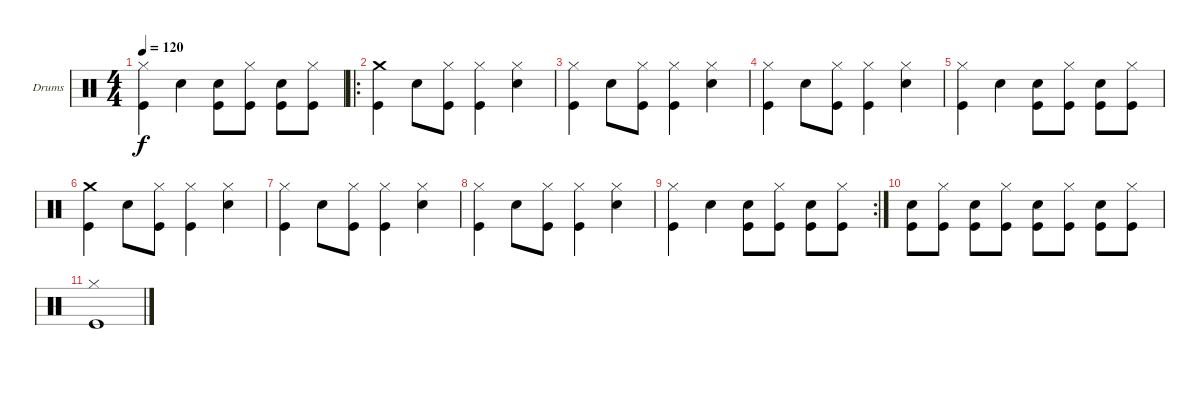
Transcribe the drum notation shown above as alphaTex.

\defaultSystemsLayout 4
\bracketExtendMode groupsimilarinstruments
\firstSystemTrackNameOrientation horizontal
\otherSystemsTrackNameOrientation horizontal
\track ("Aleksei Lyubavin" "Drums") {instrument percussion}
\staff {score}
\articulation defaults
\ts (4 4)
\tempo 120
\clef neutral
\ks c
("Hi-Hat (closed)" "Kick (hit)").4{dy f} "Snare (hit) 2".4 ("Kick (hit)" "Snare (hit) 2").8 ("Hi-Hat (closed)" "Kick (hit)").8 ("Kick (hit)" "Snare (hit) 2").8 ("Hi-Hat (closed)" "Kick (hit)").8 |
\ro
("Crash medium (hit)" "Kick (hit)").4 "Snare (hit) 2".8 ("Hi-Hat (closed)" "Kick (hit)").8 ("Hi-Hat (closed)" "Kick (hit)").4 ("Hi-Hat (closed)" "Snare (hit) 2").4 |
("Hi-Hat (closed)" "Kick (hit)").4 "Snare (hit) 2".8 ("Hi-Hat (closed)" "Kick (hit)").8 ("Hi-Hat (closed)" "Kick (hit)").4 ("Hi-Hat (closed)" "Snare (hit) 2").4 |
("Hi-Hat (closed)" "Kick (hit)").4 "Snare (hit) 2".8 ("Hi-Hat (closed)" "Kick (hit)").8 ("Hi-Hat (closed)" "Kick (hit)").4 ("Hi-Hat (closed)" "Snare (hit) 2").4 |
("Hi-Hat (closed)" "Kick (hit)").4 "Snare (hit) 2".4 ("Kick (hit)" "Snare (hit) 2").8 ("Hi-Hat (closed)" "Kick (hit)").8 ("Kick (hit)" "Snare (hit) 2").8 ("Hi-Hat (closed)" "Kick (hit)").8 |
("Crash medium (hit)" "Kick (hit)").4 "Snare (hit) 2".8 ("Hi-Hat (closed)" "Kick (hit)").8 ("Hi-Hat (closed)" "Kick (hit)").4 ("Hi-Hat (closed)" "Snare (hit) 2").4 |
("Hi-Hat (closed)" "Kick (hit)").4 "Snare (hit) 2".8 ("Hi-Hat (closed)" "Kick (hit)").8 ("Hi-Hat (closed)" "Kick (hit)").4 ("Hi-Hat (closed)" "Snare (hit) 2").4 |
("Hi-Hat (closed)" "Kick (hit)").4 "Snare (hit) 2".8 ("Hi-Hat (closed)" "Kick (hit)").8 ("Hi-Hat (closed)" "Kick (hit)").4 ("Hi-Hat (closed)" "Snare (hit) 2").4 |
\rc 2
("Hi-Hat (closed)" "Kick (hit)").4 "Snare (hit) 2".4 ("Kick (hit)" "Snare (hit) 2").8 ("Hi-Hat (closed)" "Kick (hit)").8 ("Kick (hit)" "Snare (hit) 2").8 ("Hi-Hat (closed)" "Kick (hit)").8 |
("Kick (hit)" "Snare (hit) 2").8 ("Hi-Hat (closed)" "Kick (hit)").8 ("Kick (hit)" "Snare (hit) 2").8 ("Hi-Hat (closed)" "Kick (hit)").8 ("Kick (hit)" "Snare (hit) 2").8 ("Hi-Hat (closed)" "Kick (hit)").8 ("Kick (hit)" "Snare (hit) 2").8 ("Hi-Hat (closed)" "Kick (hit)").8 |
("Hi-Hat (closed)" "Kick (hit)").1
